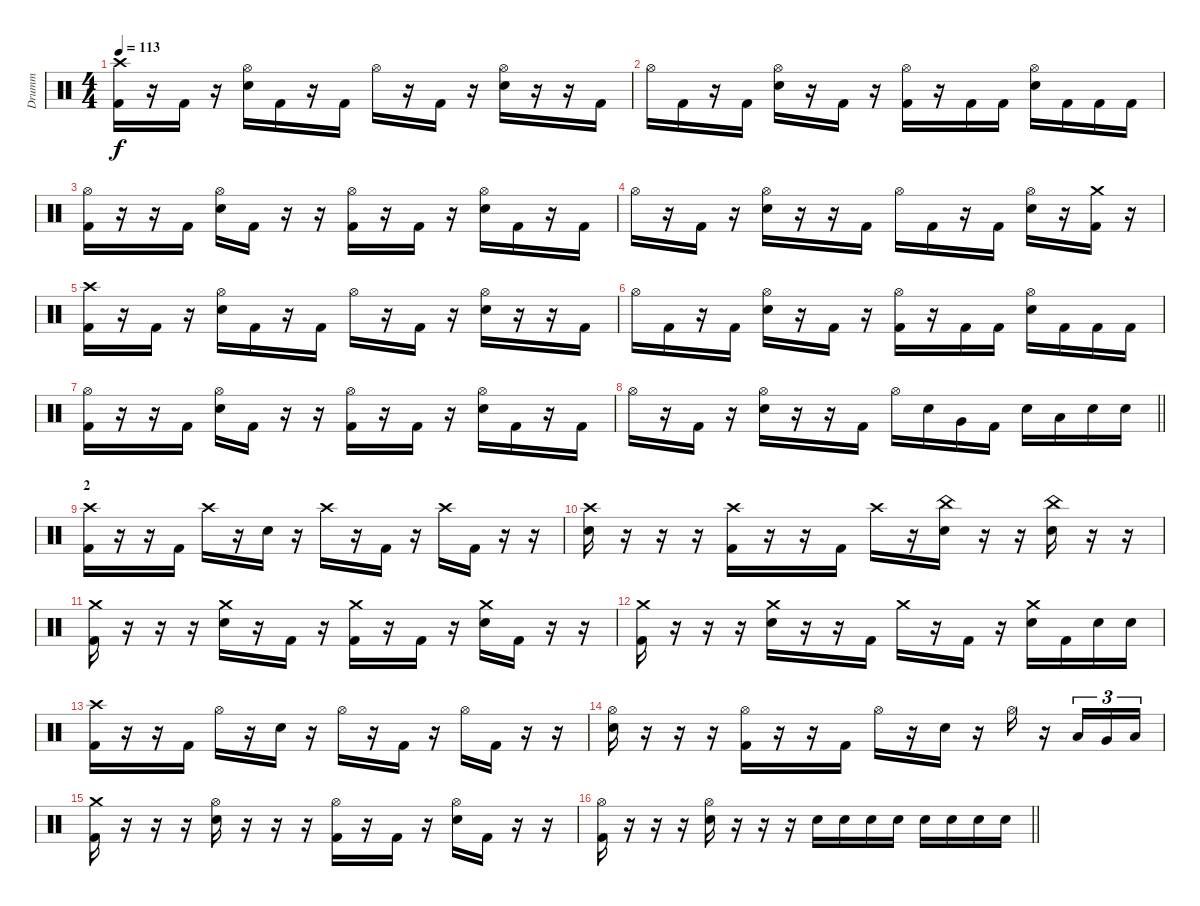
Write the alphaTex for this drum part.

\track ("Drumm" "Drumm") {instrument percussion}
\staff {score}
\articulation defaults
\ts (4 4)
\tempo 113
\clef neutral
\ks c
("Crash high (hit)" "Kick (hit) 2").16{dy f} r.16 "Kick (hit) 2".16 r.16 ("Hi-Hat (open)" "Electric Snare (hit)").16 "Kick (hit) 2".16 r.16 "Kick (hit) 2".16 "Hi-Hat (open)".16 r.16 "Kick (hit) 2".16 r.16 ("Hi-Hat (open)" "Electric Snare (hit)").16 r.16 r.16 "Kick (hit) 2".16 |
"Hi-Hat (open)".16 "Kick (hit) 2".16 r.16 "Kick (hit) 2".16 ("Hi-Hat (open)" "Electric Snare (hit)").16 r.16 "Kick (hit) 2".16 r.16 ("Hi-Hat (open)" "Kick (hit) 2").16 r.16 "Kick (hit) 2".16 "Kick (hit) 2".16 ("Hi-Hat (open)" "Electric Snare (hit)").16 "Kick (hit) 2".16 "Kick (hit) 2".16 "Kick (hit) 2".16 |
("Hi-Hat (open)" "Kick (hit) 2").16 r.16 r.16 "Kick (hit) 2".16 ("Hi-Hat (open)" "Electric Snare (hit)").16 "Kick (hit) 2".16 r.16 r.16 ("Hi-Hat (open)" "Kick (hit) 2").16 r.16 "Kick (hit) 2".16 r.16 ("Hi-Hat (open)" "Electric Snare (hit)").16 "Kick (hit) 2".16 r.16 "Kick (hit) 2".16 |
"Hi-Hat (open)".16 r.16 "Kick (hit) 2".16 r.16 ("Hi-Hat (open)" "Electric Snare (hit)").16 r.16 r.16 "Kick (hit) 2".16 "Hi-Hat (open)".16 "Kick (hit) 2".16 r.16 "Kick (hit) 2".16 ("Hi-Hat (open)" "Electric Snare (hit)").16 r.16 ("Crash medium (hit)" "Kick (hit) 2").16 r.16 |
("Crash high (hit)" "Kick (hit) 2").16 r.16 "Kick (hit) 2".16 r.16 ("Hi-Hat (open)" "Electric Snare (hit)").16 "Kick (hit) 2".16 r.16 "Kick (hit) 2".16 "Hi-Hat (open)".16 r.16 "Kick (hit) 2".16 r.16 ("Hi-Hat (open)" "Electric Snare (hit)").16 r.16 r.16 "Kick (hit) 2".16 |
"Hi-Hat (open)".16 "Kick (hit) 2".16 r.16 "Kick (hit) 2".16 ("Hi-Hat (open)" "Electric Snare (hit)").16 r.16 "Kick (hit) 2".16 r.16 ("Hi-Hat (open)" "Kick (hit) 2").16 r.16 "Kick (hit) 2".16 "Kick (hit) 2".16 ("Hi-Hat (open)" "Electric Snare (hit)").16 "Kick (hit) 2".16 "Kick (hit) 2".16 "Kick (hit) 2".16 |
("Hi-Hat (open)" "Kick (hit) 2").16 r.16 r.16 "Kick (hit) 2".16 ("Hi-Hat (open)" "Electric Snare (hit)").16 "Kick (hit) 2".16 r.16 r.16 ("Hi-Hat (open)" "Kick (hit) 2").16 r.16 "Kick (hit) 2".16 r.16 ("Hi-Hat (open)" "Electric Snare (hit)").16 "Kick (hit) 2".16 r.16 "Kick (hit) 2".16 |
\barLineRight lightlight "Hi-Hat (open)".16
r.16 "Kick (hit) 2".16 r.16 ("Hi-Hat (open)" "Electric Snare (hit)").16 r.16 r.16 "Kick (hit) 2".16 "Hi-Hat (open)".16 "Electric Snare (hit)".16 "Very Low Tom (hit)".16 "Kick (hit) 2".16 "Electric Snare (hit)".16 "Low Floor Tom (hit)".16 "Electric Snare (hit)".16 "Electric Snare (hit)".16 |
\section ("" "2")
("Crash high (hit)" "Kick (hit) 2").16 r.16 r.16 "Kick (hit) 2".16 "Crash high (hit)".16 r.16 "Electric Snare (hit)".16 r.16 "Crash high (hit)".16 r.16 "Kick (hit) 2".16 r.16 "Crash high (hit)".16 "Kick (hit) 2".16 r.16 r.16 |
("Crash high (hit)" "Electric Snare (hit)").16 r.16 r.16 r.16 ("Crash high (hit)" "Kick (hit) 2").16 r.16 r.16 "Kick (hit) 2".16 "Crash high (hit)".16 r.16 ("China (hit)" "Electric Snare (hit)").16 r.16 r.16 ("China (hit)" "Electric Snare (hit)").16 r.16 r.16 |
("Crash medium (hit)" "Kick (hit) 2").16 r.16 r.16 r.16 ("Crash medium (hit)" "Electric Snare (hit)").16 r.16 "Kick (hit) 2".16 r.16 ("Crash medium (hit)" "Kick (hit) 2").16 r.16 "Kick (hit) 2".16 r.16 ("Crash medium (hit)" "Electric Snare (hit)").16 "Kick (hit) 2".16 r.16 r.16 |
("Crash medium (hit)" "Kick (hit) 2").16 r.16 r.16 r.16 ("Crash medium (hit)" "Electric Snare (hit)").16 r.16 r.16 "Kick (hit) 2".16 "Crash medium (hit)".16 r.16 "Kick (hit) 2".16 r.16 ("Crash medium (hit)" "Electric Snare (hit)").16 "Kick (hit) 2".16 "Electric Snare (hit)".16 "Electric Snare (hit)".16 |
("Crash high (hit)" "Kick (hit) 2").16 r.16 r.16 "Kick (hit) 2".16 "Hi-Hat (open)".16 r.16 "Electric Snare (hit)".16 r.16 "Hi-Hat (open)".16 r.16 "Kick (hit) 2".16 r.16 "Hi-Hat (open)".16 "Kick (hit) 2".16 r.16 r.16 |
("Hi-Hat (open)" "Electric Snare (hit)").16 r.16 r.16 r.16 ("Hi-Hat (open)" "Kick (hit) 2").16 r.16 r.16 "Kick (hit) 2".16 "Hi-Hat (open)".16 r.16 "Electric Snare (hit)".16 r.16 "Hi-Hat (open)".16 r.16 "Low Tom (hit)".16{tu (3 2)} "Very Low Tom (hit)".16{tu (3 2)} "Low Floor Tom (hit)".16{tu (3 2)} |
("Crash medium (hit)" "Kick (hit) 2").16 r.16 r.16 r.16 ("Hi-Hat (open)" "Electric Snare (hit)").16 r.16 r.16 r.16 ("Hi-Hat (open)" "Kick (hit) 2").16 r.16 "Kick (hit) 2".16 r.16 ("Hi-Hat (open)" "Electric Snare (hit)").16 "Kick (hit) 2".16 r.16 r.16 |
\barLineRight lightlight
("Hi-Hat (open)" "Kick (hit) 2").16 r.16 r.16 r.16 ("Hi-Hat (open)" "Electric Snare (hit)").16 r.16 r.16 r.16 "Electric Snare (hit)".16 "Electric Snare (hit)".16 "Electric Snare (hit)".16 "Electric Snare (hit)".16 "Electric Snare (hit)".16 "Electric Snare (hit)".16 "Electric Snare (hit)".16 "Electric Snare (hit)".16
